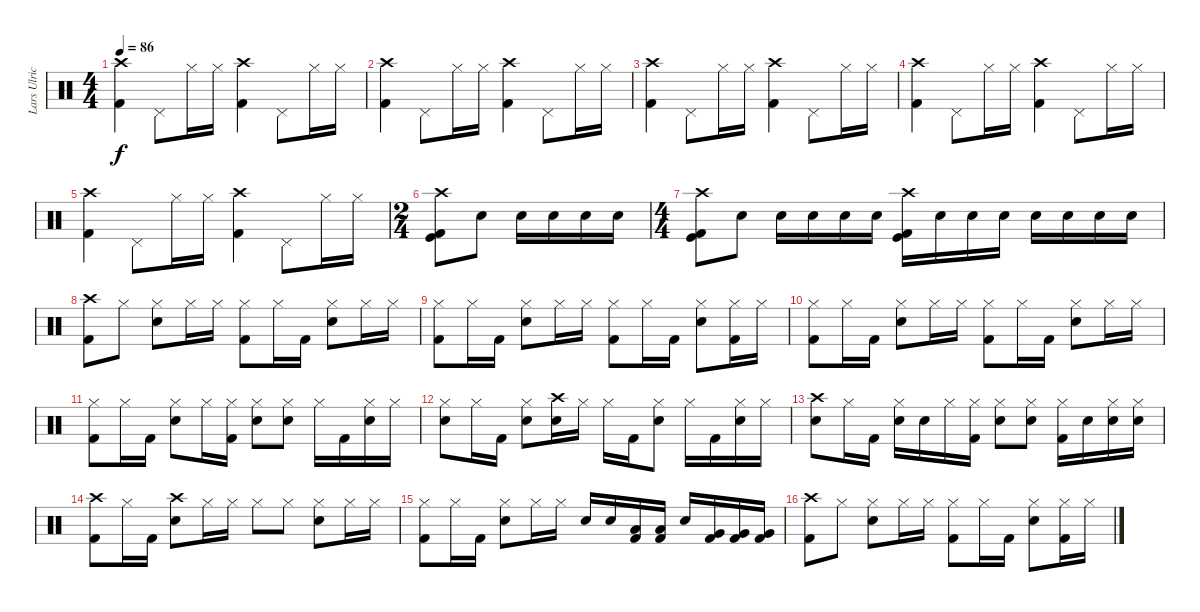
\track ("Lars Ulrich" "Lars Ulric") {instrument percussion}
\staff {score}
\articulation defaults
\ts (4 4)
\tempo 86
\clef neutral
\ks c
("Crash high (hit)" "Kick (hit) 2").4{dy f} "Pedal Hi-Hat (hit)".8 "Hi-Hat (closed)".16 "Hi-Hat (closed)".16 ("Crash high (hit)" "Kick (hit) 2").4 "Pedal Hi-Hat (hit)".8 "Hi-Hat (closed)".16 "Hi-Hat (closed)".16 |
("Crash high (hit)" "Kick (hit) 2").4 "Pedal Hi-Hat (hit)".8 "Hi-Hat (closed)".16 "Hi-Hat (closed)".16 ("Crash high (hit)" "Kick (hit) 2").4 "Pedal Hi-Hat (hit)".8 "Hi-Hat (closed)".16 "Hi-Hat (closed)".16 |
("Crash high (hit)" "Kick (hit) 2").4 "Pedal Hi-Hat (hit)".8 "Hi-Hat (closed)".16 "Hi-Hat (closed)".16 ("Crash high (hit)" "Kick (hit) 2").4 "Pedal Hi-Hat (hit)".8 "Hi-Hat (closed)".16 "Hi-Hat (closed)".16 |
("Crash high (hit)" "Kick (hit) 2").4 "Pedal Hi-Hat (hit)".8 "Hi-Hat (closed)".16 "Hi-Hat (closed)".16 ("Crash high (hit)" "Kick (hit) 2").4 "Pedal Hi-Hat (hit)".8 "Hi-Hat (closed)".16 "Hi-Hat (closed)".16 |
("Crash high (hit)" "Kick (hit) 2").4 "Pedal Hi-Hat (hit)".8 "Hi-Hat (closed)".16 "Hi-Hat (closed)".16 ("Crash high (hit)" "Kick (hit) 2").4 "Pedal Hi-Hat (hit)".8 "Hi-Hat (closed)".16 "Hi-Hat (closed)".16 |
\ts (2 4)
("Crash high (hit)" "Kick (hit) 2" "Kick (hit)").8 "Electric Snare (hit)".8 "Electric Snare (hit)".16 "Electric Snare (hit)".16 "Electric Snare (hit)".16 "Electric Snare (hit)".16 |
\ts (4 4)
("Crash high (hit)" "Kick (hit) 2" "Kick (hit)").8 "Electric Snare (hit)".8 "Electric Snare (hit)".16 "Electric Snare (hit)".16 "Electric Snare (hit)".16 "Electric Snare (hit)".16 ("Crash high (hit)" "Kick (hit) 2" "Kick (hit)").16 "Electric Snare (hit)".16 "Electric Snare (hit)".16 "Electric Snare (hit)".16 "Electric Snare (hit)".16 "Electric Snare (hit)".16 "Electric Snare (hit)".16 "Electric Snare (hit)".16 |
("Crash high (hit)" "Kick (hit) 2").8 "Hi-Hat (closed)".8 ("Hi-Hat (closed)" "Electric Snare (hit)").8 "Hi-Hat (closed)".16 "Hi-Hat (closed)".16 ("Hi-Hat (closed)" "Kick (hit) 2").8 "Hi-Hat (closed)".16 "Kick (hit) 2".16 ("Hi-Hat (closed)" "Electric Snare (hit)").8 "Hi-Hat (closed)".16 "Hi-Hat (closed)".16 |
("Hi-Hat (closed)" "Kick (hit) 2").8 "Hi-Hat (closed)".16 "Kick (hit) 2".16 ("Hi-Hat (closed)" "Electric Snare (hit)").8 "Hi-Hat (closed)".16 "Hi-Hat (closed)".16 ("Hi-Hat (closed)" "Kick (hit) 2").8 "Hi-Hat (closed)".16 "Kick (hit) 2".16 ("Hi-Hat (closed)" "Electric Snare (hit)").8 ("Hi-Hat (closed)" "Kick (hit) 2").16 "Hi-Hat (closed)".16 |
("Hi-Hat (closed)" "Kick (hit) 2").8 "Hi-Hat (closed)".16 "Kick (hit) 2".16 ("Hi-Hat (closed)" "Electric Snare (hit)").8 "Hi-Hat (closed)".16 "Hi-Hat (closed)".16 ("Hi-Hat (closed)" "Kick (hit) 2").8 "Hi-Hat (closed)".16 "Kick (hit) 2".16 ("Hi-Hat (closed)" "Electric Snare (hit)").8 "Hi-Hat (closed)".16 "Hi-Hat (closed)".16 |
("Hi-Hat (closed)" "Kick (hit) 2").8 "Hi-Hat (closed)".16 "Kick (hit) 2".16 ("Hi-Hat (closed)" "Electric Snare (hit)").8 "Hi-Hat (closed)".16 ("Hi-Hat (closed)" "Kick (hit) 2").16 ("Hi-Hat (closed)" "Electric Snare (hit)").8 ("Hi-Hat (closed)" "Electric Snare (hit)").8 "Hi-Hat (closed)".16 "Kick (hit) 2".16 ("Hi-Hat (closed)" "Electric Snare (hit)").16 "Hi-Hat (closed)".16 |
("Hi-Hat (closed)" "Electric Snare (hit)").8 "Hi-Hat (closed)".16 "Kick (hit) 2".16 ("Hi-Hat (closed)" "Electric Snare (hit)").8 ("Crash high (hit)" "Electric Snare (hit)").16 "Hi-Hat (closed)".16 "Hi-Hat (closed)".16 "Kick (hit) 2".16 ("Hi-Hat (closed)" "Electric Snare (hit)").8 "Hi-Hat (closed)".16 "Kick (hit) 2".16 ("Hi-Hat (closed)" "Electric Snare (hit)").16 "Hi-Hat (closed)".16 |
("Crash high (hit)" "Electric Snare (hit)").8 "Hi-Hat (closed)".16 "Kick (hit) 2".16 ("Hi-Hat (closed)" "Electric Snare (hit)").16 "Electric Snare (hit)".16 "Hi-Hat (closed)".16 ("Hi-Hat (closed)" "Kick (hit) 2").16 ("Hi-Hat (closed)" "Electric Snare (hit)").8 ("Hi-Hat (closed)" "Electric Snare (hit)").8 ("Hi-Hat (closed)" "Kick (hit) 2").16 "Electric Snare (hit)".16 ("Hi-Hat (closed)" "Electric Snare (hit)").16 ("Hi-Hat (closed)" "Electric Snare (hit)").16 |
("Crash high (hit)" "Kick (hit) 2").8 "Hi-Hat (closed)".16 "Kick (hit) 2".16 ("Crash high (hit)" "Electric Snare (hit)").8 "Hi-Hat (closed)".16 "Hi-Hat (closed)".16 "Hi-Hat (closed)".8 "Hi-Hat (closed)".8 ("Hi-Hat (closed)" "Electric Snare (hit)").8 "Hi-Hat (closed)".16 "Hi-Hat (closed)".16 |
("Hi-Hat (closed)" "Kick (hit) 2").8 "Hi-Hat (closed)".16 "Kick (hit) 2".16 ("Hi-Hat (closed)" "Electric Snare (hit)").8 "Hi-Hat (closed)".16 "Hi-Hat (closed)".16 "Electric Snare (hit)".16 "Electric Snare (hit)".16 ("Low Tom (hit)" "Kick (hit) 2").16 ("Low Tom (hit)" "Kick (hit) 2").16 "Electric Snare (hit)".16 ("Very Low Tom (hit)" "Kick (hit) 2").16 ("Very Low Tom (hit)" "Kick (hit) 2").16 ("Very Low Tom (hit)" "Kick (hit) 2").16 |
("Crash high (hit)" "Kick (hit) 2").8 "Hi-Hat (closed)".8 ("Hi-Hat (closed)" "Electric Snare (hit)").8 "Hi-Hat (closed)".16 "Hi-Hat (closed)".16 ("Hi-Hat (closed)" "Kick (hit) 2").8 "Hi-Hat (closed)".16 "Kick (hit) 2".16 ("Hi-Hat (closed)" "Electric Snare (hit)").8 ("Hi-Hat (closed)" "Kick (hit) 2").16 "Hi-Hat (closed)".16
